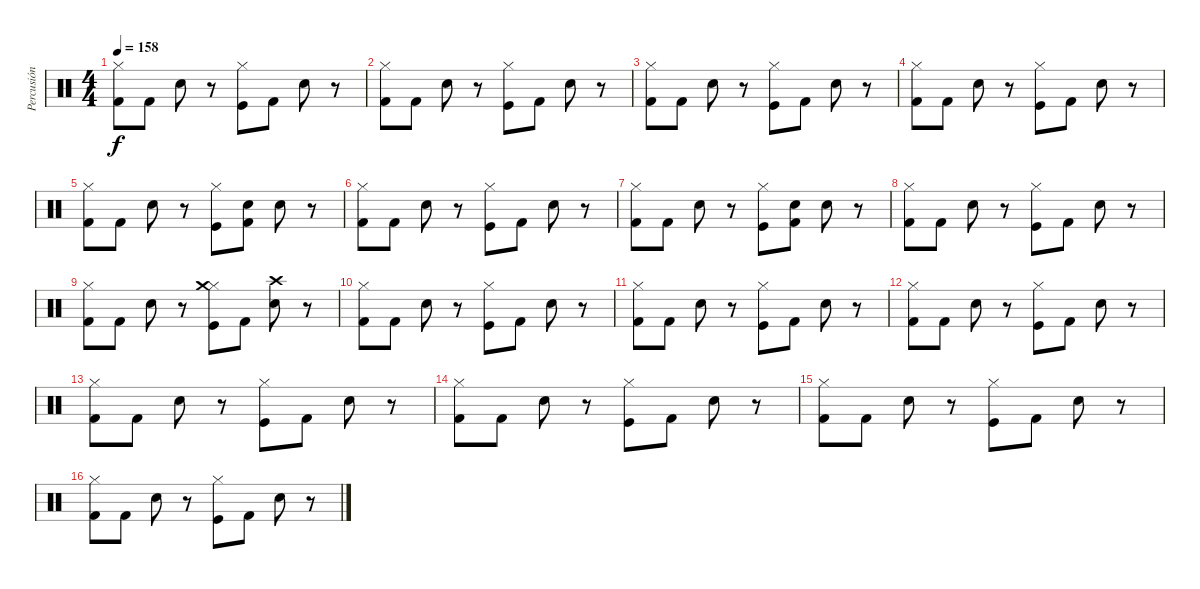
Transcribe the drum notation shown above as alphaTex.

\track ("Percusión" "Percusión") {instrument percussion}
\staff {score}
\articulation defaults
\ts (4 4)
\tempo 158
\clef neutral
\ks c
("Hi-Hat (closed)" "Kick (hit) 2").8{dy f} "Kick (hit) 2".8 "Electric Snare (hit)".8 r.8 ("Hi-Hat (closed)" "Kick (hit)").8 "Kick (hit) 2".8 "Electric Snare (hit)".8 r.8 |
("Hi-Hat (closed)" "Kick (hit) 2").8 "Kick (hit) 2".8 "Electric Snare (hit)".8 r.8 ("Hi-Hat (closed)" "Kick (hit)").8 "Kick (hit) 2".8 "Electric Snare (hit)".8 r.8 |
("Hi-Hat (closed)" "Kick (hit) 2").8 "Kick (hit) 2".8 "Electric Snare (hit)".8 r.8 ("Hi-Hat (closed)" "Kick (hit)").8 "Kick (hit) 2".8 "Electric Snare (hit)".8 r.8 |
("Hi-Hat (closed)" "Kick (hit) 2").8 "Kick (hit) 2".8 "Electric Snare (hit)".8 r.8 ("Hi-Hat (closed)" "Kick (hit)").8 "Kick (hit) 2".8 "Electric Snare (hit)".8 r.8 |
("Hi-Hat (closed)" "Kick (hit) 2").8 "Kick (hit) 2".8 "Electric Snare (hit)".8 r.8 ("Hi-Hat (closed)" "Kick (hit)").8 ("Electric Snare (hit)" "Kick (hit) 2").8 "Electric Snare (hit)".8 r.8 |
("Hi-Hat (closed)" "Kick (hit) 2").8 "Kick (hit) 2".8 "Electric Snare (hit)".8 r.8 ("Hi-Hat (closed)" "Kick (hit)").8 "Kick (hit) 2".8 "Electric Snare (hit)".8 r.8 |
("Hi-Hat (closed)" "Kick (hit) 2").8 "Kick (hit) 2".8 "Electric Snare (hit)".8 r.8 ("Hi-Hat (closed)" "Kick (hit)").8 ("Electric Snare (hit)" "Kick (hit) 2").8 "Electric Snare (hit)".8 r.8 |
("Hi-Hat (closed)" "Kick (hit) 2").8 "Kick (hit) 2".8 "Electric Snare (hit)".8 r.8 ("Hi-Hat (closed)" "Kick (hit)").8 "Kick (hit) 2".8 "Electric Snare (hit)".8 r.8 |
("Hi-Hat (closed)" "Kick (hit) 2").8 "Kick (hit) 2".8 "Electric Snare (hit)".8 r.8 ("Hi-Hat (closed)" "Kick (hit)" "Crash medium (hit)").8 "Kick (hit) 2".8 ("Electric Snare (hit)" "Crash high (hit)").8 r.8 |
("Hi-Hat (closed)" "Kick (hit) 2").8 "Kick (hit) 2".8 "Electric Snare (hit)".8 r.8 ("Hi-Hat (closed)" "Kick (hit)").8 "Kick (hit) 2".8 "Electric Snare (hit)".8 r.8 |
("Hi-Hat (closed)" "Kick (hit) 2").8 "Kick (hit) 2".8 "Electric Snare (hit)".8 r.8 ("Hi-Hat (closed)" "Kick (hit)").8 "Kick (hit) 2".8 "Electric Snare (hit)".8 r.8 |
("Hi-Hat (closed)" "Kick (hit) 2").8 "Kick (hit) 2".8 "Electric Snare (hit)".8 r.8 ("Hi-Hat (closed)" "Kick (hit)").8 "Kick (hit) 2".8 "Electric Snare (hit)".8 r.8 |
("Hi-Hat (closed)" "Kick (hit) 2").8 "Kick (hit) 2".8 "Electric Snare (hit)".8 r.8 ("Hi-Hat (closed)" "Kick (hit)").8 "Kick (hit) 2".8 "Electric Snare (hit)".8 r.8 |
("Hi-Hat (closed)" "Kick (hit) 2").8 "Kick (hit) 2".8 "Electric Snare (hit)".8 r.8 ("Hi-Hat (closed)" "Kick (hit)").8 "Kick (hit) 2".8 "Electric Snare (hit)".8 r.8 |
("Hi-Hat (closed)" "Kick (hit) 2").8 "Kick (hit) 2".8 "Electric Snare (hit)".8 r.8 ("Hi-Hat (closed)" "Kick (hit)").8 "Kick (hit) 2".8 "Electric Snare (hit)".8 r.8 |
("Hi-Hat (closed)" "Kick (hit) 2").8 "Kick (hit) 2".8 "Electric Snare (hit)".8 r.8 ("Hi-Hat (closed)" "Kick (hit)").8 "Kick (hit) 2".8 "Electric Snare (hit)".8 r.8
